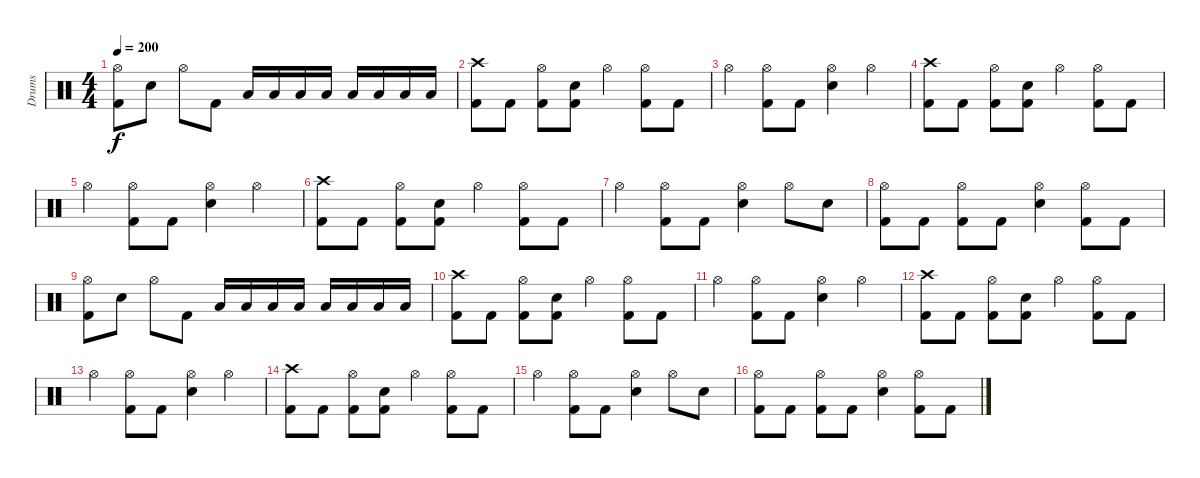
\track ("Drums" "Drums") {instrument percussion}
\staff {score}
\articulation defaults
\ts (4 4)
\tempo 200
\clef neutral
\ks c
("Hi-Hat (open)" "Kick (hit) 2").8{dy f} "Snare (hit) 2".8 "Hi-Hat (open)".8 "Kick (hit) 2".8 "Low Tom (hit)".16 "Low Tom (hit)".16 "Low Tom (hit)".16 "Low Tom (hit)".16 "Low Floor Tom (hit)".16 "Low Floor Tom (hit)".16 "Low Floor Tom (hit)".16 "Low Floor Tom (hit)".16 |
("Crash high (hit)" "Kick (hit) 2").8 "Kick (hit) 2".8 ("Hi-Hat (open)" "Kick (hit) 2").8 ("Snare (hit) 2" "Kick (hit) 2").8 "Hi-Hat (open)".4 ("Hi-Hat (open)" "Kick (hit) 2").8 "Kick (hit) 2".8 |
"Hi-Hat (open)".4 ("Hi-Hat (open)" "Kick (hit) 2").8 "Kick (hit) 2".8 ("Hi-Hat (open)" "Snare (hit) 2").4 "Hi-Hat (open)".4 |
("Crash high (hit)" "Kick (hit) 2").8 "Kick (hit) 2".8 ("Hi-Hat (open)" "Kick (hit) 2").8 ("Snare (hit) 2" "Kick (hit) 2").8 "Hi-Hat (open)".4 ("Hi-Hat (open)" "Kick (hit) 2").8 "Kick (hit) 2".8 |
"Hi-Hat (open)".4 ("Hi-Hat (open)" "Kick (hit) 2").8 "Kick (hit) 2".8 ("Hi-Hat (open)" "Snare (hit) 2").4 "Hi-Hat (open)".4 |
("Crash high (hit)" "Kick (hit) 2").8 "Kick (hit) 2".8 ("Hi-Hat (open)" "Kick (hit) 2").8 ("Snare (hit) 2" "Kick (hit) 2").8 "Hi-Hat (open)".4 ("Hi-Hat (open)" "Kick (hit) 2").8 "Kick (hit) 2".8 |
"Hi-Hat (open)".4 ("Hi-Hat (open)" "Kick (hit) 2").8 "Kick (hit) 2".8 ("Hi-Hat (open)" "Snare (hit) 2").4 "Hi-Hat (open)".8 "Snare (hit) 2".8 |
("Hi-Hat (open)" "Kick (hit) 2").8 "Kick (hit) 2".8 ("Hi-Hat (open)" "Kick (hit) 2").8 "Kick (hit) 2".8 ("Hi-Hat (open)" "Snare (hit) 2").4 ("Hi-Hat (open)" "Kick (hit) 2").8 "Kick (hit) 2".8 |
("Hi-Hat (open)" "Kick (hit) 2").8 "Snare (hit) 2".8 "Hi-Hat (open)".8 "Kick (hit) 2".8 "Low Tom (hit)".16 "Low Tom (hit)".16 "Low Tom (hit)".16 "Low Tom (hit)".16 "Low Floor Tom (hit)".16 "Low Floor Tom (hit)".16 "Low Floor Tom (hit)".16 "Low Floor Tom (hit)".16 |
("Crash high (hit)" "Kick (hit) 2").8 "Kick (hit) 2".8 ("Hi-Hat (open)" "Kick (hit) 2").8 ("Snare (hit) 2" "Kick (hit) 2").8 "Hi-Hat (open)".4 ("Hi-Hat (open)" "Kick (hit) 2").8 "Kick (hit) 2".8 |
"Hi-Hat (open)".4 ("Hi-Hat (open)" "Kick (hit) 2").8 "Kick (hit) 2".8 ("Hi-Hat (open)" "Snare (hit) 2").4 "Hi-Hat (open)".4 |
("Crash high (hit)" "Kick (hit) 2").8 "Kick (hit) 2".8 ("Hi-Hat (open)" "Kick (hit) 2").8 ("Snare (hit) 2" "Kick (hit) 2").8 "Hi-Hat (open)".4 ("Hi-Hat (open)" "Kick (hit) 2").8 "Kick (hit) 2".8 |
"Hi-Hat (open)".4 ("Hi-Hat (open)" "Kick (hit) 2").8 "Kick (hit) 2".8 ("Hi-Hat (open)" "Snare (hit) 2").4 "Hi-Hat (open)".4 |
("Crash high (hit)" "Kick (hit) 2").8 "Kick (hit) 2".8 ("Hi-Hat (open)" "Kick (hit) 2").8 ("Snare (hit) 2" "Kick (hit) 2").8 "Hi-Hat (open)".4 ("Hi-Hat (open)" "Kick (hit) 2").8 "Kick (hit) 2".8 |
"Hi-Hat (open)".4 ("Hi-Hat (open)" "Kick (hit) 2").8 "Kick (hit) 2".8 ("Hi-Hat (open)" "Snare (hit) 2").4 "Hi-Hat (open)".8 "Snare (hit) 2".8 |
("Hi-Hat (open)" "Kick (hit) 2").8 "Kick (hit) 2".8 ("Hi-Hat (open)" "Kick (hit) 2").8 "Kick (hit) 2".8 ("Hi-Hat (open)" "Snare (hit) 2").4 ("Hi-Hat (open)" "Kick (hit) 2").8 "Kick (hit) 2".8
